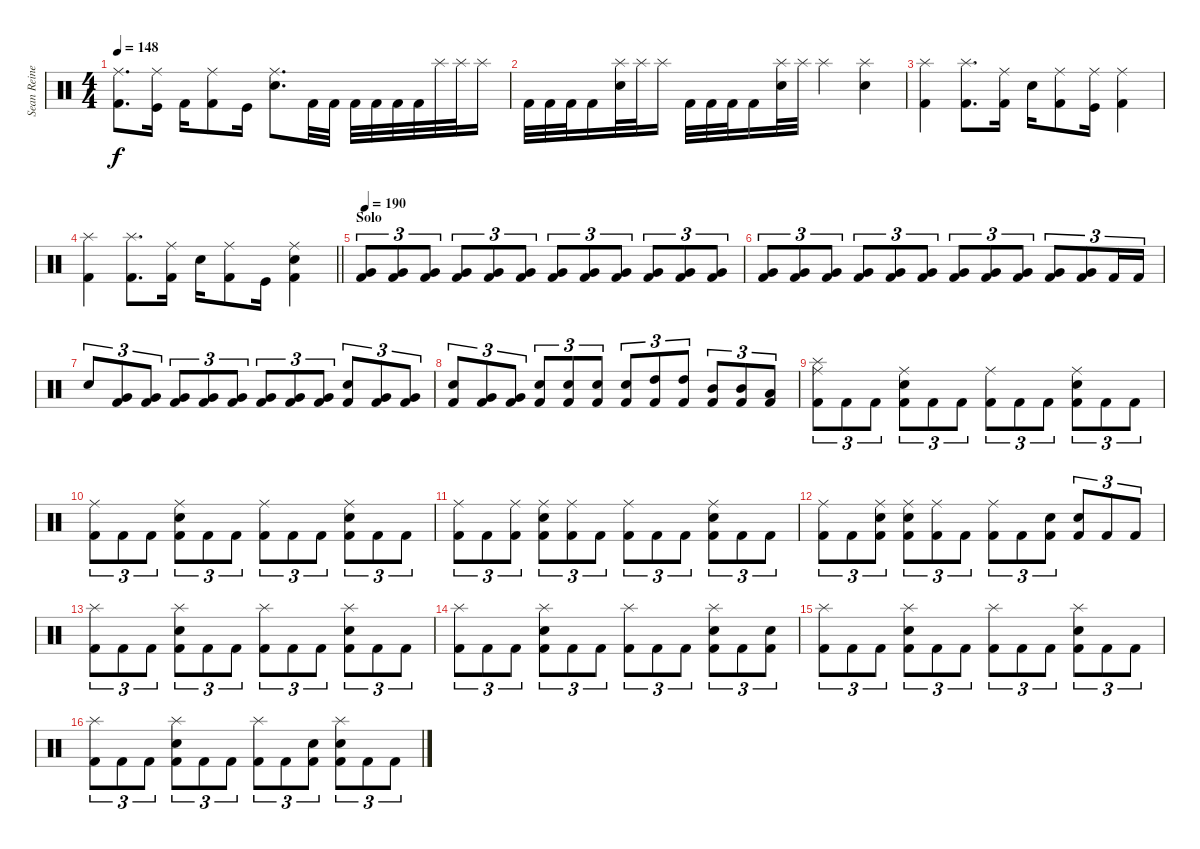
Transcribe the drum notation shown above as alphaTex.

\track ("Sean Reinert" "Sean Reine") {instrument percussion}
\staff {score}
\articulation defaults
\ts (4 4)
\tempo 148
\clef neutral
\ks c
("Ride (middle)" "Kick (hit) 2").8{d dy f} ("Ride (middle)" "Kick (hit)").16 "Kick (hit) 2".16 ("Ride (middle)" "Kick (hit) 2").8 "Kick (hit)".16 ("Ride (middle)" "Electric Snare (hit)").8{d} "Kick (hit) 2".32 "Kick (hit) 2".32 "Kick (hit) 2".32 "Kick (hit) 2".32 "Kick (hit) 2".32 "Kick (hit) 2".32 "Splash (hit)".32 "Splash (hit)".32 "Splash (hit)".16 |
"Kick (hit) 2".32 "Kick (hit) 2".32 "Kick (hit) 2".32 "Kick (hit) 2".16 ("Splash (hit)" "Electric Snare (hit)").32 "Splash (hit)".32 "Splash (hit)".16 "Kick (hit) 2".32 "Kick (hit) 2".32 "Kick (hit) 2".32 "Kick (hit) 2".16 ("Splash (hit)" "Electric Snare (hit)").32 "Splash (hit)".32 "Splash (hit)".4 ("Splash (hit)" "Electric Snare (hit)").4 |
("Splash (hit)" "Kick (hit) 2").4 ("Splash (hit)" "Kick (hit) 2").8{d} ("Ride (middle)" "Kick (hit) 2").16 "Electric Snare (hit)".16 ("Ride (middle)" "Kick (hit) 2").8 ("Ride (middle)" "Kick (hit)").16 ("Ride (middle)" "Kick (hit) 2").4 |
\barLineRight lightlight
("Splash (hit)" "Kick (hit) 2").4 ("Splash (hit)" "Kick (hit) 2").8{d} ("Ride (middle)" "Kick (hit) 2").16 "Electric Snare (hit)".16 ("Ride (middle)" "Kick (hit) 2").8 "Kick (hit)".16 ("Ride (middle)" "Electric Snare (hit)" "Kick (hit) 2").4 |
\section ("" "Solo")
\tempo 190
("Very Low Tom (hit)" "Kick (hit) 2").8{tu (3 2)} ("Very Low Tom (hit)" "Kick (hit) 2").8{tu (3 2)} ("Very Low Tom (hit)" "Kick (hit) 2").8{tu (3 2)} ("Very Low Tom (hit)" "Kick (hit) 2").8{tu (3 2)} ("Very Low Tom (hit)" "Kick (hit) 2").8{tu (3 2)} ("Very Low Tom (hit)" "Kick (hit) 2").8{tu (3 2)} ("Very Low Tom (hit)" "Kick (hit) 2").8{tu (3 2)} ("Very Low Tom (hit)" "Kick (hit) 2").8{tu (3 2)} ("Very Low Tom (hit)" "Kick (hit) 2").8{tu (3 2)} ("Very Low Tom (hit)" "Kick (hit) 2").8{tu (3 2)} ("Very Low Tom (hit)" "Kick (hit) 2").8{tu (3 2)} ("Very Low Tom (hit)" "Kick (hit) 2").8{tu (3 2)} |
("Very Low Tom (hit)" "Kick (hit) 2").8{tu (3 2)} ("Very Low Tom (hit)" "Kick (hit) 2").8{tu (3 2)} ("Very Low Tom (hit)" "Kick (hit) 2").8{tu (3 2)} ("Very Low Tom (hit)" "Kick (hit) 2").8{tu (3 2)} ("Very Low Tom (hit)" "Kick (hit) 2").8{tu (3 2)} ("Very Low Tom (hit)" "Kick (hit) 2").8{tu (3 2)} ("Very Low Tom (hit)" "Kick (hit) 2").8{tu (3 2)} ("Very Low Tom (hit)" "Kick (hit) 2").8{tu (3 2)} ("Very Low Tom (hit)" "Kick (hit) 2").8{tu (3 2)} ("Very Low Tom (hit)" "Kick (hit) 2").8{tu (3 2)} ("Very Low Tom (hit)" "Kick (hit) 2").8{tu (3 2)} "Kick (hit) 2".16{tu (3 2)} "Kick (hit) 2".16{tu (3 2)} |
"Electric Snare (hit)".8{tu (3 2)} ("Very Low Tom (hit)" "Kick (hit) 2").8{tu (3 2)} ("Very Low Tom (hit)" "Kick (hit) 2").8{tu (3 2)} ("Very Low Tom (hit)" "Kick (hit) 2").8{tu (3 2)} ("Very Low Tom (hit)" "Kick (hit) 2").8{tu (3 2)} ("Very Low Tom (hit)" "Kick (hit) 2").8{tu (3 2)} ("Very Low Tom (hit)" "Kick (hit) 2").8{tu (3 2)} ("Very Low Tom (hit)" "Kick (hit) 2").8{tu (3 2)} ("Very Low Tom (hit)" "Kick (hit) 2").8{tu (3 2)} ("Electric Snare (hit)" "Kick (hit) 2").8{tu (3 2)} ("Very Low Tom (hit)" "Kick (hit) 2").8{tu (3 2)} ("Very Low Tom (hit)" "Kick (hit) 2").8{tu (3 2)} |
("Electric Snare (hit)" "Kick (hit) 2").8{tu (3 2)} ("Very Low Tom (hit)" "Kick (hit) 2").8{tu (3 2)} ("Very Low Tom (hit)" "Kick (hit) 2").8{tu (3 2)} ("Electric Snare (hit)" "Kick (hit) 2").8{tu (3 2)} ("Electric Snare (hit)" "Kick (hit) 2").8{tu (3 2)} ("Electric Snare (hit)" "Kick (hit) 2").8{tu (3 2)} ("Electric Snare (hit)" "Kick (hit) 2").8{tu (3 2)} ("High Tom (hit)" "Kick (hit) 2").8{tu (3 2)} ("High Tom (hit)" "Kick (hit) 2").8{tu (3 2)} ("Mid Tom (hit)" "Kick (hit) 2").8{tu (3 2)} ("Mid Tom (hit)" "Kick (hit) 2").8{tu (3 2)} ("Low Tom (hit)" "Kick (hit) 2").8{tu (3 2)} |
("Ride (middle)" "Splash (hit)" "Kick (hit) 2").8{tu (3 2)} "Kick (hit) 2".8{tu (3 2)} "Kick (hit) 2".8{tu (3 2)} ("Ride (middle)" "Electric Snare (hit)" "Kick (hit) 2").8{tu (3 2)} "Kick (hit) 2".8{tu (3 2)} "Kick (hit) 2".8{tu (3 2)} ("Ride (middle)" "Kick (hit) 2").8{tu (3 2)} "Kick (hit) 2".8{tu (3 2)} "Kick (hit) 2".8{tu (3 2)} ("Ride (middle)" "Electric Snare (hit)" "Kick (hit) 2").8{tu (3 2)} "Kick (hit) 2".8{tu (3 2)} "Kick (hit) 2".8{tu (3 2)} |
("Ride (middle)" "Kick (hit) 2").8{tu (3 2)} "Kick (hit) 2".8{tu (3 2)} "Kick (hit) 2".8{tu (3 2)} ("Ride (middle)" "Electric Snare (hit)" "Kick (hit) 2").8{tu (3 2)} "Kick (hit) 2".8{tu (3 2)} "Kick (hit) 2".8{tu (3 2)} ("Ride (middle)" "Kick (hit) 2").8{tu (3 2)} "Kick (hit) 2".8{tu (3 2)} "Kick (hit) 2".8{tu (3 2)} ("Ride (middle)" "Electric Snare (hit)" "Kick (hit) 2").8{tu (3 2)} "Kick (hit) 2".8{tu (3 2)} "Kick (hit) 2".8{tu (3 2)} |
("Ride (middle)" "Kick (hit) 2").8{tu (3 2)} "Kick (hit) 2".8{tu (3 2)} ("Ride (middle)" "Kick (hit) 2").8{tu (3 2)} ("Ride (middle)" "Electric Snare (hit)" "Kick (hit) 2").8{tu (3 2)} ("Ride (middle)" "Kick (hit) 2").8{tu (3 2)} "Kick (hit) 2".8{tu (3 2)} ("Ride (middle)" "Kick (hit) 2").8{tu (3 2)} "Kick (hit) 2".8{tu (3 2)} "Kick (hit) 2".8{tu (3 2)} ("Ride (middle)" "Electric Snare (hit)" "Kick (hit) 2").8{tu (3 2)} "Kick (hit) 2".8{tu (3 2)} "Kick (hit) 2".8{tu (3 2)} |
("Ride (middle)" "Kick (hit) 2").8{tu (3 2)} "Kick (hit) 2".8{tu (3 2)} ("Ride (middle)" "Electric Snare (hit)" "Kick (hit) 2").8{tu (3 2)} ("Ride (middle)" "Electric Snare (hit)" "Kick (hit) 2").8{tu (3 2)} ("Ride (middle)" "Kick (hit) 2").8{tu (3 2)} "Kick (hit) 2".8{tu (3 2)} ("Ride (middle)" "Kick (hit) 2").8{tu (3 2)} "Kick (hit) 2".8{tu (3 2)} ("Electric Snare (hit)" "Kick (hit) 2").8{tu (3 2)} ("Electric Snare (hit)" "Kick (hit) 2").8{tu (3 2)} "Kick (hit) 2".8{tu (3 2)} "Kick (hit) 2".8{tu (3 2)} |
("Splash (hit)" "Kick (hit) 2").8{tu (3 2)} "Kick (hit) 2".8{tu (3 2)} "Kick (hit) 2".8{tu (3 2)} ("Splash (hit)" "Electric Snare (hit)" "Kick (hit) 2").8{tu (3 2)} "Kick (hit) 2".8{tu (3 2)} "Kick (hit) 2".8{tu (3 2)} ("Splash (hit)" "Kick (hit) 2").8{tu (3 2)} "Kick (hit) 2".8{tu (3 2)} "Kick (hit) 2".8{tu (3 2)} ("Splash (hit)" "Electric Snare (hit)" "Kick (hit) 2").8{tu (3 2)} "Kick (hit) 2".8{tu (3 2)} "Kick (hit) 2".8{tu (3 2)} |
("Splash (hit)" "Kick (hit) 2").8{tu (3 2)} "Kick (hit) 2".8{tu (3 2)} "Kick (hit) 2".8{tu (3 2)} ("Splash (hit)" "Electric Snare (hit)" "Kick (hit) 2").8{tu (3 2)} "Kick (hit) 2".8{tu (3 2)} "Kick (hit) 2".8{tu (3 2)} ("Splash (hit)" "Kick (hit) 2").8{tu (3 2)} "Kick (hit) 2".8{tu (3 2)} "Kick (hit) 2".8{tu (3 2)} ("Splash (hit)" "Electric Snare (hit)" "Kick (hit) 2").8{tu (3 2)} "Kick (hit) 2".8{tu (3 2)} ("Electric Snare (hit)" "Kick (hit) 2").8{tu (3 2)} |
("Splash (hit)" "Kick (hit) 2").8{tu (3 2)} "Kick (hit) 2".8{tu (3 2)} "Kick (hit) 2".8{tu (3 2)} ("Splash (hit)" "Electric Snare (hit)" "Kick (hit) 2").8{tu (3 2)} "Kick (hit) 2".8{tu (3 2)} "Kick (hit) 2".8{tu (3 2)} ("Splash (hit)" "Kick (hit) 2").8{tu (3 2)} "Kick (hit) 2".8{tu (3 2)} "Kick (hit) 2".8{tu (3 2)} ("Splash (hit)" "Electric Snare (hit)" "Kick (hit) 2").8{tu (3 2)} "Kick (hit) 2".8{tu (3 2)} "Kick (hit) 2".8{tu (3 2)} |
("Splash (hit)" "Kick (hit) 2").8{tu (3 2)} "Kick (hit) 2".8{tu (3 2)} "Kick (hit) 2".8{tu (3 2)} ("Splash (hit)" "Electric Snare (hit)" "Kick (hit) 2").8{tu (3 2)} "Kick (hit) 2".8{tu (3 2)} "Kick (hit) 2".8{tu (3 2)} ("Splash (hit)" "Kick (hit) 2").8{tu (3 2)} "Kick (hit) 2".8{tu (3 2)} ("Electric Snare (hit)" "Kick (hit) 2").8{tu (3 2)} ("Splash (hit)" "Electric Snare (hit)" "Kick (hit) 2").8{tu (3 2)} "Kick (hit) 2".8{tu (3 2)} "Kick (hit) 2".8{tu (3 2)}
